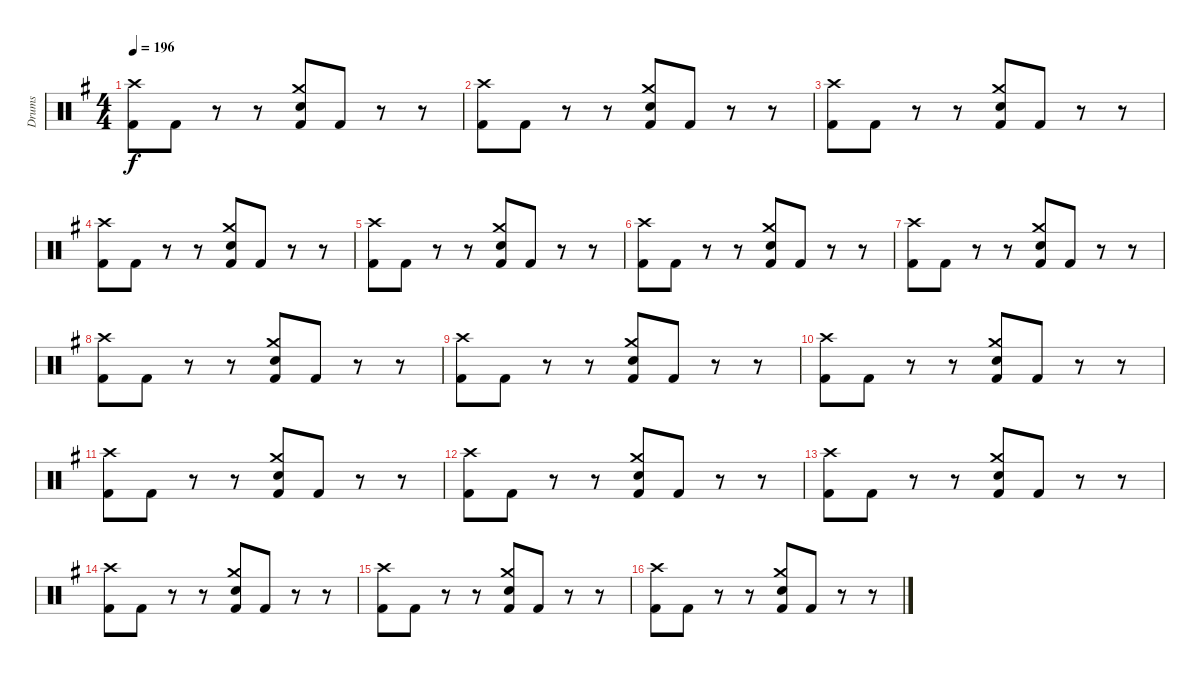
\track ("Drums" "Drums") {instrument percussion}
\staff {score}
\articulation defaults
\ts (4 4)
\tempo 196
\clef neutral
\ks eminor
("Crash high (hit)" "Kick (hit) 2").8{dy f balance 8} "Kick (hit) 2".8 r.8 r.8 ("Crash medium (hit)" "Electric Snare (hit)" "Kick (hit) 2").8 "Kick (hit) 2".8 r.8 r.8 |
("Crash high (hit)" "Kick (hit) 2").8 "Kick (hit) 2".8 r.8 r.8 ("Crash medium (hit)" "Electric Snare (hit)" "Kick (hit) 2").8 "Kick (hit) 2".8 r.8 r.8 |
("Crash high (hit)" "Kick (hit) 2").8 "Kick (hit) 2".8 r.8 r.8 ("Crash medium (hit)" "Electric Snare (hit)" "Kick (hit) 2").8 "Kick (hit) 2".8 r.8 r.8 |
("Crash high (hit)" "Kick (hit) 2").8 "Kick (hit) 2".8 r.8 r.8 ("Crash medium (hit)" "Electric Snare (hit)" "Kick (hit) 2").8 "Kick (hit) 2".8 r.8 r.8 |
("Crash high (hit)" "Kick (hit) 2").8 "Kick (hit) 2".8 r.8 r.8 ("Crash medium (hit)" "Electric Snare (hit)" "Kick (hit) 2").8 "Kick (hit) 2".8 r.8 r.8 |
("Crash high (hit)" "Kick (hit) 2").8 "Kick (hit) 2".8 r.8 r.8 ("Crash medium (hit)" "Electric Snare (hit)" "Kick (hit) 2").8 "Kick (hit) 2".8 r.8 r.8 |
("Crash high (hit)" "Kick (hit) 2").8 "Kick (hit) 2".8 r.8 r.8 ("Crash medium (hit)" "Electric Snare (hit)" "Kick (hit) 2").8 "Kick (hit) 2".8 r.8 r.8 |
("Crash high (hit)" "Kick (hit) 2").8 "Kick (hit) 2".8 r.8 r.8 ("Crash medium (hit)" "Electric Snare (hit)" "Kick (hit) 2").8 "Kick (hit) 2".8 r.8 r.8 |
("Crash high (hit)" "Kick (hit) 2").8 "Kick (hit) 2".8 r.8 r.8 ("Crash medium (hit)" "Electric Snare (hit)" "Kick (hit) 2").8 "Kick (hit) 2".8 r.8 r.8 |
("Crash high (hit)" "Kick (hit) 2").8 "Kick (hit) 2".8 r.8 r.8 ("Crash medium (hit)" "Electric Snare (hit)" "Kick (hit) 2").8 "Kick (hit) 2".8 r.8 r.8 |
("Crash high (hit)" "Kick (hit) 2").8 "Kick (hit) 2".8 r.8 r.8 ("Crash medium (hit)" "Electric Snare (hit)" "Kick (hit) 2").8 "Kick (hit) 2".8 r.8 r.8 |
("Crash high (hit)" "Kick (hit) 2").8 "Kick (hit) 2".8 r.8 r.8 ("Crash medium (hit)" "Electric Snare (hit)" "Kick (hit) 2").8 "Kick (hit) 2".8 r.8 r.8 |
("Crash high (hit)" "Kick (hit) 2").8 "Kick (hit) 2".8 r.8 r.8 ("Crash medium (hit)" "Electric Snare (hit)" "Kick (hit) 2").8 "Kick (hit) 2".8 r.8 r.8 |
("Crash high (hit)" "Kick (hit) 2").8 "Kick (hit) 2".8 r.8 r.8 ("Crash medium (hit)" "Electric Snare (hit)" "Kick (hit) 2").8 "Kick (hit) 2".8 r.8 r.8 |
("Crash high (hit)" "Kick (hit) 2").8 "Kick (hit) 2".8 r.8 r.8 ("Crash medium (hit)" "Electric Snare (hit)" "Kick (hit) 2").8 "Kick (hit) 2".8 r.8 r.8 |
("Crash high (hit)" "Kick (hit) 2").8 "Kick (hit) 2".8 r.8 r.8 ("Crash medium (hit)" "Electric Snare (hit)" "Kick (hit) 2").8 "Kick (hit) 2".8 r.8 r.8
